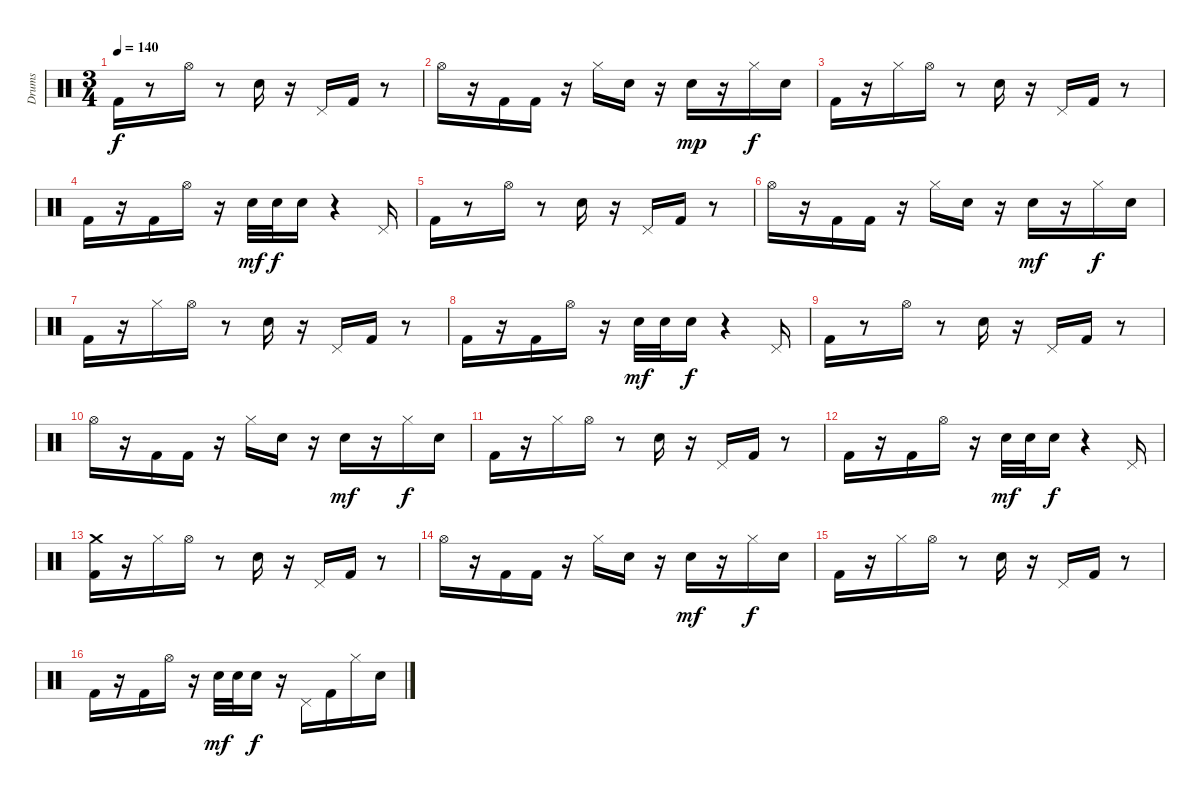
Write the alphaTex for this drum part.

\track ("Drums" "Drums") {instrument percussion}
\staff {score}
\articulation defaults
\ts (3 4)
\tempo 140
\clef neutral
\ks c "Kick (hit) 2".16{dy f}
r.8 "Hi-Hat (open)".16 r.8 "Electric Snare (hit)".16 r.16 "Pedal Hi-Hat (hit)".16 "Kick (hit) 2".16 r.8 |
"Hi-Hat (open)".16 r.16 "Kick (hit) 2".16 "Kick (hit) 2".16 r.16 "Hi-Hat (closed)".16 "Electric Snare (hit)".16 r.16 "Electric Snare (hit)".16{dy mp} r.16 "Hi-Hat (closed)".16{dy f} "Electric Snare (hit)".16 |
"Kick (hit) 2".16 r.16 "Hi-Hat (closed)".16 "Hi-Hat (open)".16 r.8 "Electric Snare (hit)".16 r.16 "Pedal Hi-Hat (hit)".16 "Kick (hit) 2".16 r.8 |
"Kick (hit) 2".16 r.16 "Kick (hit) 2".16 "Hi-Hat (open)".16 r.16 "Electric Snare (hit)".32{dy mf} "Electric Snare (hit)".32{dy f} "Electric Snare (hit)".16 r.4 "Pedal Hi-Hat (hit)".16 |
"Kick (hit) 2".16 r.8 "Hi-Hat (open)".16 r.8 "Electric Snare (hit)".16 r.16 "Pedal Hi-Hat (hit)".16 "Kick (hit) 2".16 r.8 |
"Hi-Hat (open)".16 r.16 "Kick (hit) 2".16 "Kick (hit) 2".16 r.16 "Hi-Hat (closed)".16 "Electric Snare (hit)".16 r.16 "Electric Snare (hit)".16{dy mf} r.16 "Hi-Hat (closed)".16{dy f} "Electric Snare (hit)".16 |
"Kick (hit) 2".16 r.16 "Hi-Hat (closed)".16 "Hi-Hat (open)".16 r.8 "Electric Snare (hit)".16 r.16 "Pedal Hi-Hat (hit)".16 "Kick (hit) 2".16 r.8 |
"Kick (hit) 2".16 r.16 "Kick (hit) 2".16 "Hi-Hat (open)".16 r.16 "Electric Snare (hit)".32{dy mf} "Electric Snare (hit)".32 "Electric Snare (hit)".16{dy f} r.4 "Pedal Hi-Hat (hit)".16 |
"Kick (hit) 2".16 r.8 "Hi-Hat (open)".16 r.8 "Electric Snare (hit)".16 r.16 "Pedal Hi-Hat (hit)".16 "Kick (hit) 2".16 r.8 |
"Hi-Hat (open)".16 r.16 "Kick (hit) 2".16 "Kick (hit) 2".16 r.16 "Hi-Hat (closed)".16 "Electric Snare (hit)".16 r.16 "Electric Snare (hit)".16{dy mf} r.16 "Hi-Hat (closed)".16{dy f} "Electric Snare (hit)".16 |
"Kick (hit) 2".16 r.16 "Hi-Hat (closed)".16 "Hi-Hat (open)".16 r.8 "Electric Snare (hit)".16 r.16 "Pedal Hi-Hat (hit)".16 "Kick (hit) 2".16 r.8 |
"Kick (hit) 2".16 r.16 "Kick (hit) 2".16 "Hi-Hat (open)".16 r.16 "Electric Snare (hit)".32{dy mf} "Electric Snare (hit)".32 "Electric Snare (hit)".16{dy f} r.4 "Pedal Hi-Hat (hit)".16 |
("Kick (hit) 2" "Crash medium (hit)").16 r.16 "Hi-Hat (closed)".16 "Hi-Hat (open)".16 r.8 "Electric Snare (hit)".16 r.16 "Pedal Hi-Hat (hit)".16 "Kick (hit) 2".16 r.8 |
"Hi-Hat (open)".16 r.16 "Kick (hit) 2".16 "Kick (hit) 2".16 r.16 "Hi-Hat (closed)".16 "Electric Snare (hit)".16 r.16 "Electric Snare (hit)".16{dy mf} r.16 "Hi-Hat (closed)".16{dy f} "Electric Snare (hit)".16 |
"Kick (hit) 2".16 r.16 "Hi-Hat (closed)".16 "Hi-Hat (open)".16 r.8 "Electric Snare (hit)".16 r.16 "Pedal Hi-Hat (hit)".16 "Kick (hit) 2".16 r.8 |
"Kick (hit) 2".16 r.16 "Kick (hit) 2".16 "Hi-Hat (open)".16 r.16 "Electric Snare (hit)".32{dy mf} "Electric Snare (hit)".32 "Electric Snare (hit)".16{dy f} r.16 "Pedal Hi-Hat (hit)".16 "Kick (hit) 2".16 "Hi-Hat (closed)".16 "Electric Snare (hit)".16
